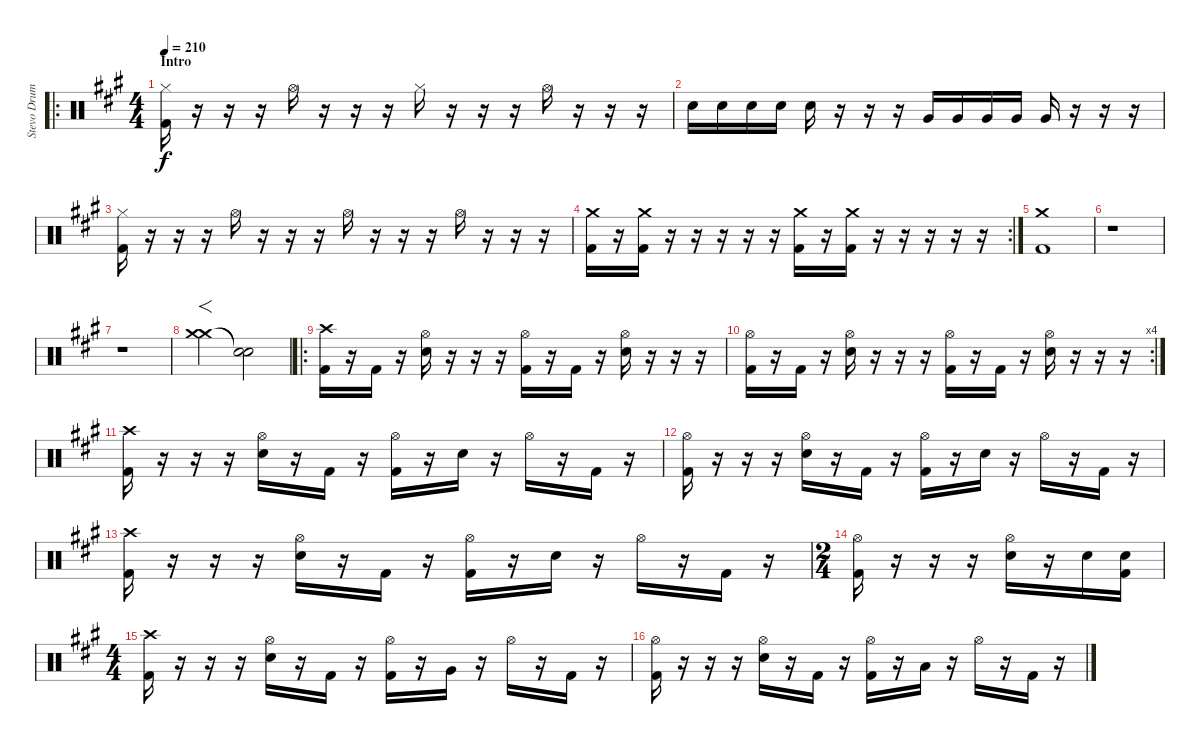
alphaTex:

\track ("Stevo Drums" "Stevo Drum") {instrument percussion}
\staff {score}
\articulation defaults
\ro
\ts (4 4)
\section ("" "Intro")
\tempo 210
\clef neutral
\ks a
("Hi-Hat (closed)" "Kick (hit) 2").16{dy f} r.16 r.16 r.16 "Hi-Hat (open)".16 r.16 r.16 r.16 "Hi-Hat (closed)".16 r.16 r.16 r.16 "Hi-Hat (open)".16 r.16 r.16 r.16 |
"Snare (hit) 2".16 "Snare (hit) 2".16 "Snare (hit) 2".16 "Snare (hit) 2".16 "Snare (hit) 2".16 r.16 r.16 r.16 "Very Low Tom (hit)".16 "Very Low Tom (hit)".16 "Very Low Tom (hit)".16 "Very Low Tom (hit)".16 "Very Low Tom (hit)".16 r.16 r.16 r.16 |
("Hi-Hat (closed)" "Kick (hit) 2").16 r.16 r.16 r.16 "Hi-Hat (open)".16 r.16 r.16 r.16 "Hi-Hat (open)".16 r.16 r.16 r.16 "Hi-Hat (open)".16 r.16 r.16 r.16 |
\rc 2
("Crash medium (hit)" "Kick (hit) 2").16 r.16 ("Crash medium (hit)" "Kick (hit) 2").16 r.16 r.16 r.16 r.16 r.16 ("Crash medium (hit)" "Kick (hit) 2").16 r.16 ("Crash medium (hit)" "Kick (hit) 2").16 r.16 r.16 r.16 r.16 r.16 |
("Crash medium (hit)" "Kick (hit) 2").1 |
r.1 |
r.1 |
("Crash medium (hit)" "Crash medium (hit)").2{f} ("Snare (hit)"{t} "Snare (hit)"{t}).2 |
\ro
("Crash high (hit)" "Kick (hit) 2").16 r.16 "Kick (hit) 2".16 r.16 ("Hi-Hat (open)" "Snare (hit) 2").16 r.16 r.16 r.16 ("Hi-Hat (open)" "Kick (hit) 2").16 r.16 "Kick (hit) 2".16 r.16 ("Hi-Hat (open)" "Snare (hit) 2").16 r.16 r.16 r.16 |
\rc 4
("Hi-Hat (open)" "Kick (hit) 2").16 r.16 "Kick (hit) 2".16 r.16 ("Hi-Hat (open)" "Snare (hit) 2").16 r.16 r.16 r.16 ("Hi-Hat (open)" "Kick (hit) 2").16 r.16 "Kick (hit) 2".16 r.16 ("Hi-Hat (open)" "Snare (hit) 2").16 r.16 r.16 r.16 |
("Crash high (hit)" "Kick (hit) 2").16 r.16 r.16 r.16 ("Hi-Hat (open)" "Snare (hit) 2").16 r.16 "Kick (hit) 2".16 r.16 ("Hi-Hat (open)" "Kick (hit) 2").16 r.16 "Snare (hit) 2".16 r.16 "Hi-Hat (open)".16 r.16 "Kick (hit) 2".16 r.16 |
("Hi-Hat (open)" "Kick (hit) 2").16 r.16 r.16 r.16 ("Hi-Hat (open)" "Snare (hit) 2").16 r.16 "Kick (hit) 2".16 r.16 ("Hi-Hat (open)" "Kick (hit) 2").16 r.16 "Snare (hit) 2".16 r.16 "Hi-Hat (open)".16 r.16 "Kick (hit) 2".16 r.16 |
("Crash high (hit)" "Kick (hit) 2").16 r.16 r.16 r.16 ("Hi-Hat (open)" "Snare (hit) 2").16 r.16 "Kick (hit) 2".16 r.16 ("Hi-Hat (open)" "Kick (hit) 2").16 r.16 "Snare (hit) 2".16 r.16 "Hi-Hat (open)".16 r.16 "Kick (hit) 2".16 r.16 |
\ts (2 4)
("Hi-Hat (open)" "Kick (hit) 2").16 r.16 r.16 r.16 ("Hi-Hat (open)" "Snare (hit) 2").16 r.16 "Snare (hit) 2".16 ("Snare (hit) 2" "Kick (hit) 2").16 |
\ts (4 4)
("Crash high (hit)" "Kick (hit) 2").16 r.16 r.16 r.16 ("Hi-Hat (open)" "Snare (hit) 2").16 r.16 "Kick (hit) 2".16 r.16 ("Hi-Hat (open)" "Kick (hit) 2").16 r.16 "Very Low Tom (hit)".16 r.16 "Hi-Hat (open)".16 r.16 "Kick (hit) 2".16 r.16 |
("Hi-Hat (open)" "Kick (hit) 2").16 r.16 r.16 r.16 ("Hi-Hat (open)" "Snare (hit) 2").16 r.16 "Kick (hit) 2".16 r.16 ("Hi-Hat (open)" "Kick (hit) 2").16 r.16 "Low Tom (hit)".16 r.16 "Hi-Hat (open)".16 r.16 "Kick (hit) 2".16 r.16
